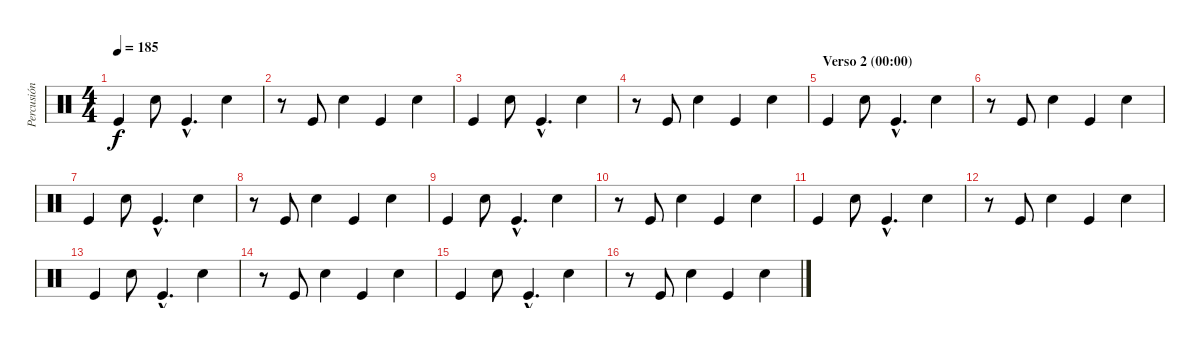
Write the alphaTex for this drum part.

\track ("Percusión" "Percusión") {instrument percussion}
\staff {score}
\articulation defaults
\ts (4 4)
\tempo 185
\clef neutral
\ks c "Kick (hit)".4{dy f} "Electric Snare (hit)".8 "Kick (hit)"{hac}.4{d} "Electric Snare (hit)".4
|
r.8 "Kick (hit)".8 "Electric Snare (hit)".4 "Kick (hit)".4 "Electric Snare (hit)".4 |
"Kick (hit)".4 "Electric Snare (hit)".8 "Kick (hit)"{hac}.4{d} "Electric Snare (hit)".4 |
r.8 "Kick (hit)".8 "Electric Snare (hit)".4 "Kick (hit)".4 "Electric Snare (hit)".4 |
\section ("" "Verso 2 (00:00)")
"Kick (hit)".4 "Electric Snare (hit)".8 "Kick (hit)"{hac}.4{d} "Electric Snare (hit)".4 |
r.8 "Kick (hit)".8 "Electric Snare (hit)".4 "Kick (hit)".4 "Electric Snare (hit)".4 |
"Kick (hit)".4 "Electric Snare (hit)".8 "Kick (hit)"{hac}.4{d} "Electric Snare (hit)".4 |
r.8 "Kick (hit)".8 "Electric Snare (hit)".4 "Kick (hit)".4 "Electric Snare (hit)".4 |
"Kick (hit)".4 "Electric Snare (hit)".8 "Kick (hit)"{hac}.4{d} "Electric Snare (hit)".4 |
r.8 "Kick (hit)".8 "Electric Snare (hit)".4 "Kick (hit)".4 "Electric Snare (hit)".4 |
"Kick (hit)".4 "Electric Snare (hit)".8 "Kick (hit)"{hac}.4{d} "Electric Snare (hit)".4 |
r.8 "Kick (hit)".8 "Electric Snare (hit)".4 "Kick (hit)".4 "Electric Snare (hit)".4 |
"Kick (hit)".4 "Electric Snare (hit)".8 "Kick (hit)"{hac}.4{d} "Electric Snare (hit)".4 |
r.8 "Kick (hit)".8 "Electric Snare (hit)".4 "Kick (hit)".4 "Electric Snare (hit)".4 |
"Kick (hit)".4 "Electric Snare (hit)".8 "Kick (hit)"{hac}.4{d} "Electric Snare (hit)".4 |
r.8 "Kick (hit)".8 "Electric Snare (hit)".4 "Kick (hit)".4 "Electric Snare (hit)".4
